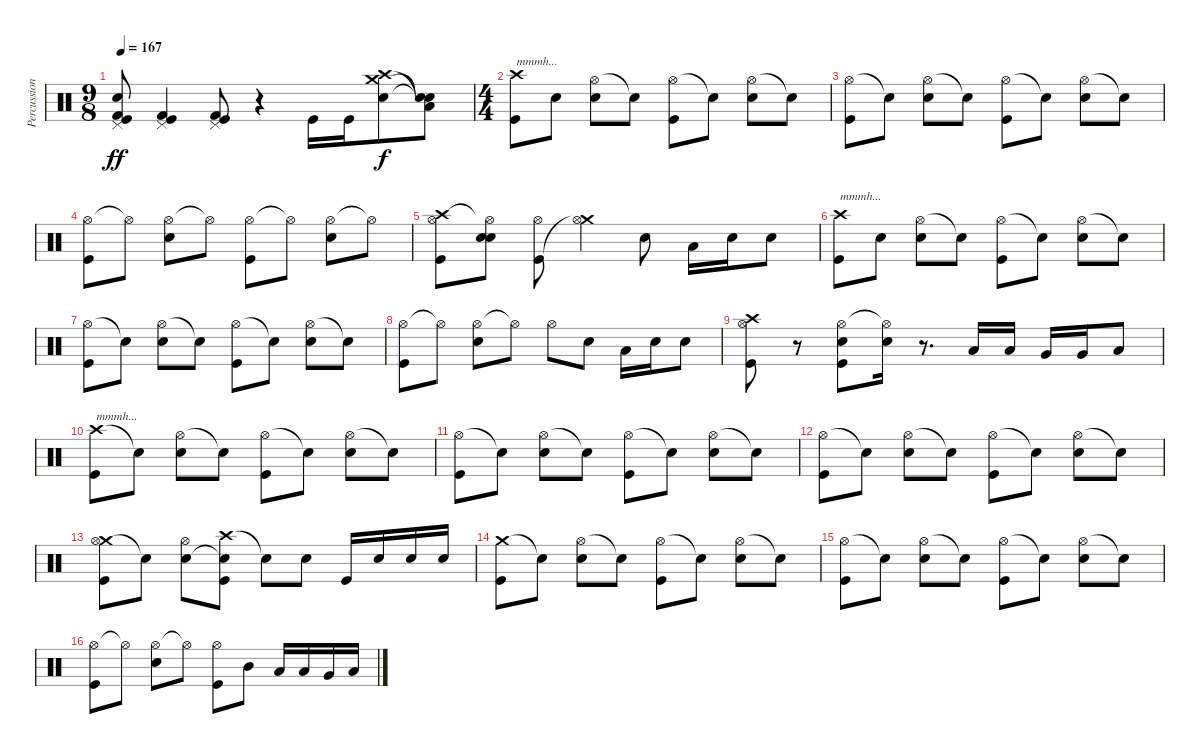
\track ("Percussions" "Percussion") {instrument percussion}
\staff {score}
\articulation defaults
\ts (9 8)
\tempo 167
\clef neutral
\ks c
("Pedal Hi-Hat (hit)" "Electric Snare (hit)" "Kick (hit) 2" "Kick (hit)").8{dy ff} ("Pedal Hi-Hat (hit)" "Kick (hit) 2" "Kick (hit)").4 ("Pedal Hi-Hat (hit)" "Kick (hit) 2" "Kick (hit)").8 r.4 "Kick (hit)".16 "Kick (hit)".16 ("Crash medium (hit)" "Crash high (hit)" "Electric Snare (hit)").8{dy f} ("Snare (hit)"{t} "Low Tom (hit)"{t} "Snare (hit)"{t}).8 |
\ts (4 4)
("Crash high (hit)" "Kick (hit)").8{txt "mmmh..." volume 15} "Snare (hit)".8 ("Hi-Hat (open)" "Electric Snare (hit)").8 "Snare (hit)"{t}.8 ("Hi-Hat (open)" "Kick (hit)").8 "Snare (hit)"{t}.8 ("Hi-Hat (open)" "Electric Snare (hit)").8 "Snare (hit)"{t}.8 |
("Hi-Hat (open)" "Kick (hit)").8 "Snare (hit)"{t}.8 ("Hi-Hat (open)" "Electric Snare (hit)").8 "Snare (hit)"{t}.8 ("Hi-Hat (open)" "Kick (hit)").8 "Snare (hit)"{t}.8 ("Hi-Hat (open)" "Electric Snare (hit)").8 "Snare (hit)"{t}.8 |
("Hi-Hat (open)" "Kick (hit)").8 "Hi-Hat (open)"{t}.8 ("Hi-Hat (open)" "Electric Snare (hit)").8 "Hi-Hat (open)"{t}.8 ("Hi-Hat (open)" "Kick (hit)").8 "Hi-Hat (open)"{t}.8 ("Hi-Hat (open)" "Electric Snare (hit)").8 "Hi-Hat (open)"{t}.8 |
("Crash high (hit)" "Hi-Hat (open)" "Kick (hit)").8{volume 15} ("Hi-Hat (open)"{t} "Electric Snare (hit)" "Snare (hit)").8 ("Hi-Hat (open)" "Kick (hit)").8 ("Crash medium (hit)" "Hi-Hat (open)"{t}).4 "Electric Snare (hit)".8 "Low Floor Tom (hit)".16 "Electric Snare (hit)".16 "Electric Snare (hit)".8 |
("Crash high (hit)" "Kick (hit)").8{txt "mmmh..." volume 15} "Snare (hit)".8 ("Hi-Hat (open)" "Electric Snare (hit)").8 "Snare (hit)"{t}.8 ("Hi-Hat (open)" "Kick (hit)").8 "Snare (hit)"{t}.8 ("Hi-Hat (open)" "Electric Snare (hit)").8 "Snare (hit)"{t}.8 |
("Hi-Hat (open)" "Kick (hit)").8 "Snare (hit)"{t}.8 ("Hi-Hat (open)" "Electric Snare (hit)").8 "Snare (hit)"{t}.8 ("Hi-Hat (open)" "Kick (hit)").8 "Snare (hit)"{t}.8 ("Hi-Hat (open)" "Electric Snare (hit)").8 "Snare (hit)"{t}.8 |
("Hi-Hat (open)" "Kick (hit)").8 "Hi-Hat (open)"{t}.8 ("Hi-Hat (open)" "Electric Snare (hit)").8 "Hi-Hat (open)"{t}.8 "Hi-Hat (open)".8 "Electric Snare (hit)".8 "Low Floor Tom (hit)".16 "Electric Snare (hit)".16 "Electric Snare (hit)".8 |
("Crash high (hit)" "Hi-Hat (open)" "Kick (hit)").8{volume 15} r.8 ("Hi-Hat (open)" "Electric Snare (hit)" "Kick (hit)").8 ("Hi-Hat (open)"{t} "Electric Snare (hit)").16 r.8{d} "Low Tom (hit)".16 "Low Tom (hit)".16 "Very Low Tom (hit)".16 "Very Low Tom (hit)".16 "Low Floor Tom (hit)".8 |
("Crash high (hit)" "Kick (hit)").8{txt "mmmh..." volume 15} "Snare (hit)"{t}.8 ("Hi-Hat (open)" "Electric Snare (hit)").8 "Snare (hit)"{t}.8 ("Hi-Hat (open)" "Kick (hit)").8 "Snare (hit)"{t}.8 ("Hi-Hat (open)" "Electric Snare (hit)").8 "Snare (hit)"{t}.8 |
("Hi-Hat (open)" "Kick (hit)").8 "Snare (hit)"{t}.8 ("Hi-Hat (open)" "Electric Snare (hit)").8 "Snare (hit)"{t}.8 ("Hi-Hat (open)" "Kick (hit)").8 "Snare (hit)"{t}.8 ("Hi-Hat (open)" "Electric Snare (hit)").8 "Snare (hit)"{t}.8 |
("Hi-Hat (open)" "Kick (hit)").8 "Snare (hit)"{t}.8 ("Hi-Hat (open)" "Electric Snare (hit)").8 "Snare (hit)"{t}.8 ("Hi-Hat (open)" "Kick (hit)").8 "Snare (hit)"{t}.8 ("Hi-Hat (open)" "Electric Snare (hit)").8 "Snare (hit)"{t}.8 |
("Crash medium (hit)" "Hi-Hat (open)" "Kick (hit)").8 "Snare (hit)"{t}.8 ("Hi-Hat (open)" "Electric Snare (hit)").8 ("Crash high (hit)" "Snare (hit)"{t} "Kick (hit)").8 "Snare (hit)"{t}.8 "Electric Snare (hit)".8 "Kick (hit)".16 "Electric Snare (hit)".16 "Electric Snare (hit)".16 "Electric Snare (hit)".16 |
("Crash medium (hit)" "Kick (hit)").8{volume 15} "Snare (hit)"{t}.8 ("Hi-Hat (open)" "Electric Snare (hit)").8 "Snare (hit)"{t}.8 ("Hi-Hat (open)" "Kick (hit)").8 "Snare (hit)"{t}.8 ("Hi-Hat (open)" "Electric Snare (hit)").8 "Snare (hit)"{t}.8 |
("Hi-Hat (open)" "Kick (hit)").8 "Snare (hit)"{t}.8 ("Hi-Hat (open)" "Electric Snare (hit)").8 "Snare (hit)"{t}.8 ("Hi-Hat (open)" "Kick (hit)").8 "Snare (hit)"{t}.8 ("Hi-Hat (open)" "Electric Snare (hit)").8 "Snare (hit)"{t}.8 |
("Hi-Hat (open)" "Kick (hit)").8{volume 15} "Hi-Hat (open)"{t}.8 ("Hi-Hat (open)" "Electric Snare (hit)").8 "Hi-Hat (open)"{t}.8 ("Hi-Hat (open)" "Kick (hit)").8 "Mid Tom (hit)".8 "Low Tom (hit)".16 "Low Tom (hit)".16 "Very Low Tom (hit)".16 "Low Floor Tom (hit)".16
